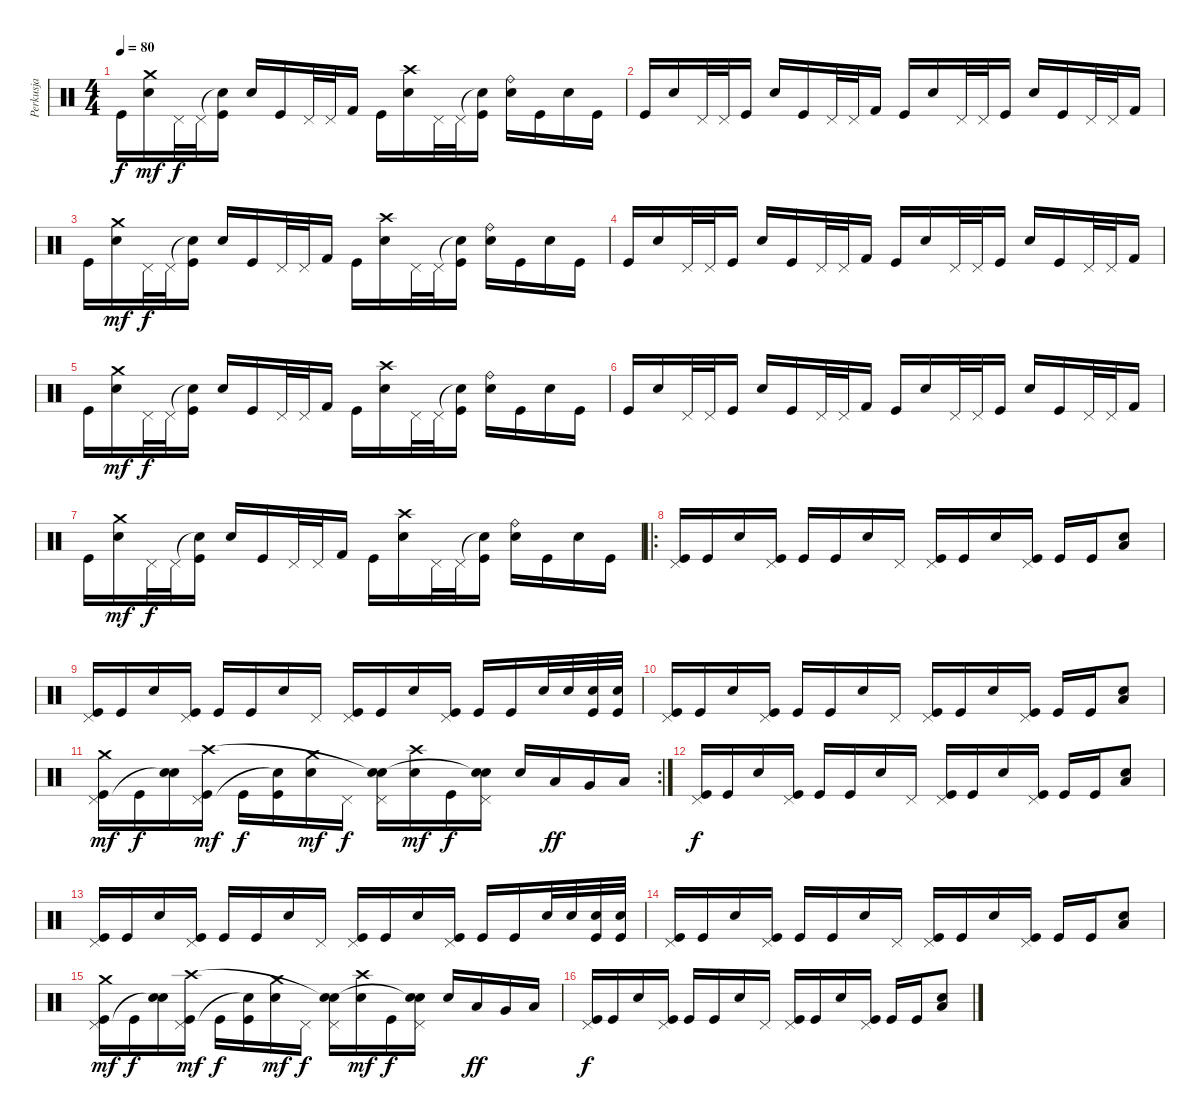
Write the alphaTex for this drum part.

\track ("Perkusja" "Perkusja") {instrument percussion}
\staff {score}
\articulation defaults
\ts (4 4)
\tempo 80
\clef neutral
\ks c "Kick (hit)".16{dy f}
("Electric Snare (hit)" "Crash medium (hit)").16{dy mf} "Pedal Hi-Hat (hit)".32{dy f} "Pedal Hi-Hat (hit)".32 ("Snare (hit)"{t} "Kick (hit)").16 "Electric Snare (hit)".16 "Kick (hit)".16 "Pedal Hi-Hat (hit)".32 "Pedal Hi-Hat (hit)".32 "Kick (hit) 2".16 "Kick (hit)".16 ("Electric Snare (hit)" "Crash high (hit)").16 "Pedal Hi-Hat (hit)".32 "Pedal Hi-Hat (hit)".32 ("Snare (hit)"{t} "Kick (hit)").16 ("Electric Snare (hit)" "Ride (bell)").16 "Kick (hit)".16 "Electric Snare (hit)".16 "Kick (hit)".16 |
"Kick (hit)".16 "Electric Snare (hit)".16 "Pedal Hi-Hat (hit)".32 "Pedal Hi-Hat (hit)".32 "Kick (hit)".16 "Electric Snare (hit)".16 "Kick (hit)".16 "Pedal Hi-Hat (hit)".32 "Pedal Hi-Hat (hit)".32 "Kick (hit) 2".16 "Kick (hit)".16 "Electric Snare (hit)".16 "Pedal Hi-Hat (hit)".32 "Pedal Hi-Hat (hit)".32 "Kick (hit)".16 "Electric Snare (hit)".16 "Kick (hit)".16 "Pedal Hi-Hat (hit)".32 "Pedal Hi-Hat (hit)".32 "Kick (hit) 2".16 |
"Kick (hit)".16 ("Electric Snare (hit)" "Crash medium (hit)").16{dy mf} "Pedal Hi-Hat (hit)".32{dy f} "Pedal Hi-Hat (hit)".32 ("Snare (hit)"{t} "Kick (hit)").16 "Electric Snare (hit)".16 "Kick (hit)".16 "Pedal Hi-Hat (hit)".32 "Pedal Hi-Hat (hit)".32 "Kick (hit) 2".16 "Kick (hit)".16 ("Electric Snare (hit)" "Crash high (hit)").16 "Pedal Hi-Hat (hit)".32 "Pedal Hi-Hat (hit)".32 ("Snare (hit)"{t} "Kick (hit)").16 ("Electric Snare (hit)" "Ride (bell)").16 "Kick (hit)".16 "Electric Snare (hit)".16 "Kick (hit)".16 |
"Kick (hit)".16 "Electric Snare (hit)".16 "Pedal Hi-Hat (hit)".32 "Pedal Hi-Hat (hit)".32 "Kick (hit)".16 "Electric Snare (hit)".16 "Kick (hit)".16 "Pedal Hi-Hat (hit)".32 "Pedal Hi-Hat (hit)".32 "Kick (hit) 2".16 "Kick (hit)".16 "Electric Snare (hit)".16 "Pedal Hi-Hat (hit)".32 "Pedal Hi-Hat (hit)".32 "Kick (hit)".16 "Electric Snare (hit)".16 "Kick (hit)".16 "Pedal Hi-Hat (hit)".32 "Pedal Hi-Hat (hit)".32 "Kick (hit) 2".16 |
"Kick (hit)".16 ("Electric Snare (hit)" "Crash medium (hit)").16{dy mf} "Pedal Hi-Hat (hit)".32{dy f} "Pedal Hi-Hat (hit)".32 ("Snare (hit)"{t} "Kick (hit)").16 "Electric Snare (hit)".16 "Kick (hit)".16 "Pedal Hi-Hat (hit)".32 "Pedal Hi-Hat (hit)".32 "Kick (hit) 2".16 "Kick (hit)".16 ("Electric Snare (hit)" "Crash high (hit)").16 "Pedal Hi-Hat (hit)".32 "Pedal Hi-Hat (hit)".32 ("Snare (hit)"{t} "Kick (hit)").16 ("Electric Snare (hit)" "Ride (bell)").16 "Kick (hit)".16 "Electric Snare (hit)".16 "Kick (hit)".16 |
"Kick (hit)".16 "Electric Snare (hit)".16 "Pedal Hi-Hat (hit)".32 "Pedal Hi-Hat (hit)".32 "Kick (hit)".16 "Electric Snare (hit)".16 "Kick (hit)".16 "Pedal Hi-Hat (hit)".32 "Pedal Hi-Hat (hit)".32 "Kick (hit) 2".16 "Kick (hit)".16 "Electric Snare (hit)".16 "Pedal Hi-Hat (hit)".32 "Pedal Hi-Hat (hit)".32 "Kick (hit)".16 "Electric Snare (hit)".16 "Kick (hit)".16 "Pedal Hi-Hat (hit)".32 "Pedal Hi-Hat (hit)".32 "Kick (hit) 2".16 |
"Kick (hit)".16 ("Electric Snare (hit)" "Crash medium (hit)").16{dy mf} "Pedal Hi-Hat (hit)".32{dy f} "Pedal Hi-Hat (hit)".32 ("Snare (hit)"{t} "Kick (hit)").16 "Electric Snare (hit)".16 "Kick (hit)".16 "Pedal Hi-Hat (hit)".32 "Pedal Hi-Hat (hit)".32 "Kick (hit) 2".16 "Kick (hit)".16 ("Electric Snare (hit)" "Crash high (hit)").16 "Pedal Hi-Hat (hit)".32 "Pedal Hi-Hat (hit)".32 ("Snare (hit)"{t} "Kick (hit)").16 ("Electric Snare (hit)" "Ride (bell)").16 "Kick (hit)".16 "Electric Snare (hit)".16 "Kick (hit)".16 |
\ro
("Kick (hit)" "Pedal Hi-Hat (hit)").16 "Kick (hit)".16 "Electric Snare (hit)".16 ("Kick (hit)" "Pedal Hi-Hat (hit)").16 "Kick (hit)".16 "Kick (hit)".16 "Electric Snare (hit)".16 "Pedal Hi-Hat (hit)".16 ("Kick (hit)" "Pedal Hi-Hat (hit)").16 "Kick (hit)".16 "Electric Snare (hit)".16 ("Kick (hit)" "Pedal Hi-Hat (hit)").16 "Kick (hit)".16 "Kick (hit)".16 ("Electric Snare (hit)" "Low Tom (hit)").8 |
("Kick (hit)" "Pedal Hi-Hat (hit)").16 "Kick (hit)".16 "Electric Snare (hit)".16 ("Kick (hit)" "Pedal Hi-Hat (hit)").16 "Kick (hit)".16 "Kick (hit)".16 "Electric Snare (hit)".16 "Pedal Hi-Hat (hit)".16 ("Kick (hit)" "Pedal Hi-Hat (hit)").16 "Kick (hit)".16 "Electric Snare (hit)".16 ("Kick (hit)" "Pedal Hi-Hat (hit)").16 "Kick (hit)".16 "Kick (hit)".16 "Electric Snare (hit)".32 "Electric Snare (hit)".32 ("Electric Snare (hit)" "Kick (hit)").32 ("Electric Snare (hit)" "Kick (hit)").32 |
("Kick (hit)" "Pedal Hi-Hat (hit)").16 "Kick (hit)".16 "Electric Snare (hit)".16 ("Kick (hit)" "Pedal Hi-Hat (hit)").16 "Kick (hit)".16 "Kick (hit)".16 "Electric Snare (hit)".16 "Pedal Hi-Hat (hit)".16 ("Kick (hit)" "Pedal Hi-Hat (hit)").16 "Kick (hit)".16 "Electric Snare (hit)".16 ("Kick (hit)" "Pedal Hi-Hat (hit)").16 "Kick (hit)".16 "Kick (hit)".16 ("Electric Snare (hit)" "Low Tom (hit)").8 |
\rc 2
("Kick (hit)" "Pedal Hi-Hat (hit)" "Crash medium (hit)").16{dy mf} "Kick (hit)".16{dy f} ("Electric Snare (hit)" "Snare (hit)"{t}).16 ("Kick (hit)" "Pedal Hi-Hat (hit)" "Crash high (hit)").16{dy mf} "Kick (hit)".16{dy f} ("Kick (hit)" "Snare (hit)"{t}).16 ("Electric Snare (hit)" "Crash medium (hit)").16{dy mf} "Pedal Hi-Hat (hit)".16{dy f} ("Electric Snare (hit)" "Pedal Hi-Hat (hit)" "Snare (hit)"{t}).16 ("Snare (hit) 2" "Crash high (hit)").16{dy mf} "Kick (hit)".16{dy f} ("Electric Snare (hit)" "Pedal Hi-Hat (hit)" "Snare (hit)"{t}).16 "Snare (hit) 2".16 "Low Tom (hit)".16{dy ff} "Very Low Tom (hit)".16 "Low Floor Tom (hit)".16 |
("Kick (hit)" "Pedal Hi-Hat (hit)").16{dy f} "Kick (hit)".16 "Electric Snare (hit)".16 ("Kick (hit)" "Pedal Hi-Hat (hit)").16 "Kick (hit)".16 "Kick (hit)".16 "Electric Snare (hit)".16 "Pedal Hi-Hat (hit)".16 ("Kick (hit)" "Pedal Hi-Hat (hit)").16 "Kick (hit)".16 "Electric Snare (hit)".16 ("Kick (hit)" "Pedal Hi-Hat (hit)").16 "Kick (hit)".16 "Kick (hit)".16 ("Electric Snare (hit)" "Low Tom (hit)").8 |
("Kick (hit)" "Pedal Hi-Hat (hit)").16 "Kick (hit)".16 "Electric Snare (hit)".16 ("Kick (hit)" "Pedal Hi-Hat (hit)").16 "Kick (hit)".16 "Kick (hit)".16 "Electric Snare (hit)".16 "Pedal Hi-Hat (hit)".16 ("Kick (hit)" "Pedal Hi-Hat (hit)").16 "Kick (hit)".16 "Electric Snare (hit)".16 ("Kick (hit)" "Pedal Hi-Hat (hit)").16 "Kick (hit)".16 "Kick (hit)".16 "Electric Snare (hit)".32 "Electric Snare (hit)".32 ("Electric Snare (hit)" "Kick (hit)").32 ("Electric Snare (hit)" "Kick (hit)").32 |
("Kick (hit)" "Pedal Hi-Hat (hit)").16 "Kick (hit)".16 "Electric Snare (hit)".16 ("Kick (hit)" "Pedal Hi-Hat (hit)").16 "Kick (hit)".16 "Kick (hit)".16 "Electric Snare (hit)".16 "Pedal Hi-Hat (hit)".16 ("Kick (hit)" "Pedal Hi-Hat (hit)").16 "Kick (hit)".16 "Electric Snare (hit)".16 ("Kick (hit)" "Pedal Hi-Hat (hit)").16 "Kick (hit)".16 "Kick (hit)".16 ("Electric Snare (hit)" "Low Tom (hit)").8 |
("Kick (hit)" "Pedal Hi-Hat (hit)" "Crash medium (hit)").16{dy mf} "Kick (hit)".16{dy f} ("Electric Snare (hit)" "Snare (hit)"{t}).16 ("Kick (hit)" "Pedal Hi-Hat (hit)" "Crash high (hit)").16{dy mf} "Kick (hit)".16{dy f} ("Kick (hit)" "Snare (hit)"{t}).16 ("Electric Snare (hit)" "Crash medium (hit)").16{dy mf} "Pedal Hi-Hat (hit)".16{dy f} ("Electric Snare (hit)" "Pedal Hi-Hat (hit)" "Snare (hit)"{t}).16 ("Snare (hit) 2" "Crash high (hit)").16{dy mf} "Kick (hit)".16{dy f} ("Electric Snare (hit)" "Pedal Hi-Hat (hit)" "Snare (hit)"{t}).16 "Snare (hit) 2".16 "Low Tom (hit)".16{dy ff} "Very Low Tom (hit)".16 "Low Floor Tom (hit)".16 |
("Kick (hit)" "Pedal Hi-Hat (hit)").16{dy f} "Kick (hit)".16 "Electric Snare (hit)".16 ("Kick (hit)" "Pedal Hi-Hat (hit)").16 "Kick (hit)".16 "Kick (hit)".16 "Electric Snare (hit)".16 "Pedal Hi-Hat (hit)".16 ("Kick (hit)" "Pedal Hi-Hat (hit)").16 "Kick (hit)".16 "Electric Snare (hit)".16 ("Kick (hit)" "Pedal Hi-Hat (hit)").16 "Kick (hit)".16 "Kick (hit)".16 ("Electric Snare (hit)" "Low Tom (hit)").8
